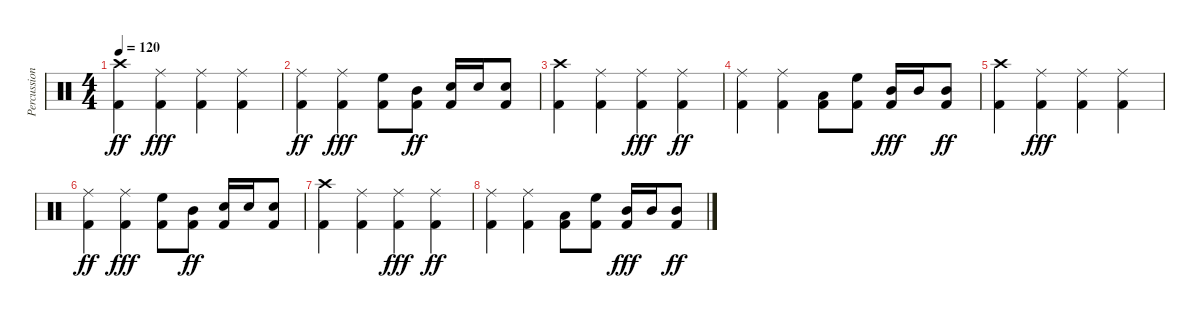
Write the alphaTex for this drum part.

\track ("Percussion" "Percussion") {instrument percussion}
\staff {score}
\articulation defaults
\ts (4 4)
\tempo 120
\clef neutral
\ks c
("Crash high (hit)" "Kick (hit) 2").4{dy ff} ("Kick (hit) 2" "Ride (middle)").4{dy fff} ("Kick (hit) 2" "Ride (middle)").4 ("Kick (hit) 2" "Ride (middle)").4 |
("Ride (middle)" "Kick (hit) 2").4{dy ff} ("Kick (hit) 2" "Ride (middle)").4{dy fff} ("Kick (hit) 2" "High Floor Tom (hit)").8 ("Mid Tom (hit)" "Kick (hit) 2").8{dy ff} ("Snare (hit) 2" "Kick (hit) 2").16 "Snare (hit) 2".16 ("Kick (hit) 2" "Snare (hit) 2").8 |
("Crash high (hit)" "Kick (hit) 2").4 ("Ride (middle)" "Kick (hit) 2").4 ("Kick (hit) 2" "Ride (middle)").4{dy fff} ("Ride (middle)" "Kick (hit) 2").4{dy ff} |
("Ride (middle)" "Kick (hit) 2").4 ("Ride (middle)" "Kick (hit) 2").4 ("Low Tom (hit)" "Kick (hit) 2").8 ("High Floor Tom (hit)" "Kick (hit) 2").8 ("Kick (hit) 2" "Mid Tom (hit)").16{dy fff} "Mid Tom (hit)".16 ("Mid Tom (hit)" "Kick (hit) 2").8{dy ff} |
("Crash high (hit)" "Kick (hit) 2").4 ("Kick (hit) 2" "Ride (middle)").4{dy fff} ("Kick (hit) 2" "Ride (middle)").4 ("Kick (hit) 2" "Ride (middle)").4 |
("Ride (middle)" "Kick (hit) 2").4{dy ff} ("Kick (hit) 2" "Ride (middle)").4{dy fff} ("Kick (hit) 2" "High Floor Tom (hit)").8 ("Mid Tom (hit)" "Kick (hit) 2").8{dy ff} ("Snare (hit) 2" "Kick (hit) 2").16 "Snare (hit) 2".16 ("Kick (hit) 2" "Snare (hit) 2").8 |
("Crash high (hit)" "Kick (hit) 2").4 ("Ride (middle)" "Kick (hit) 2").4 ("Kick (hit) 2" "Ride (middle)").4{dy fff} ("Ride (middle)" "Kick (hit) 2").4{dy ff} |
("Ride (middle)" "Kick (hit) 2").4 ("Ride (middle)" "Kick (hit) 2").4 ("Low Tom (hit)" "Kick (hit) 2").8 ("High Floor Tom (hit)" "Kick (hit) 2").8 ("Kick (hit) 2" "Mid Tom (hit)").16{dy fff} "Mid Tom (hit)".16 ("Mid Tom (hit)" "Kick (hit) 2").8{dy ff}
